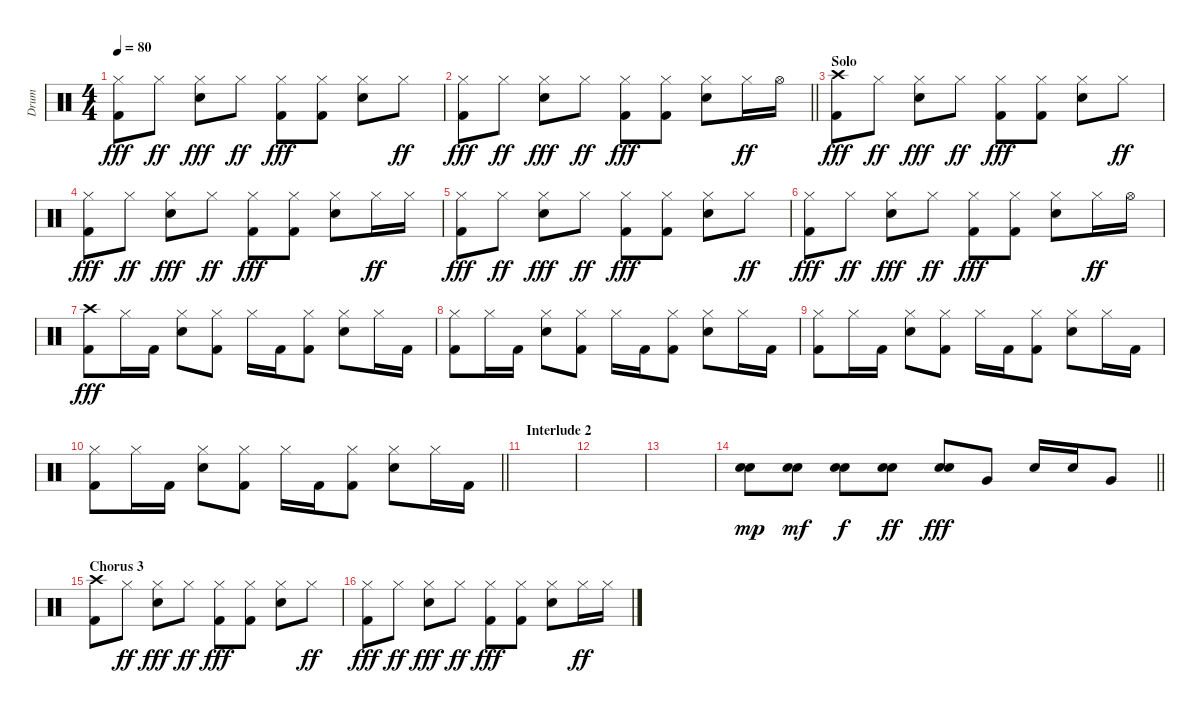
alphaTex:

\track ("Drum" "Drum") {instrument percussion}
\staff {score}
\articulation defaults
\ts (4 4)
\tempo 80
\clef neutral
\ks c
("Hi-Hat (closed)" "Kick (hit) 2").8{dy fff} "Hi-Hat (closed)".8{dy ff} ("Hi-Hat (closed)" "Electric Snare (hit)").8{dy fff} "Hi-Hat (closed)".8{dy ff} ("Hi-Hat (closed)" "Kick (hit) 2").8{dy fff} ("Hi-Hat (closed)" "Kick (hit) 2").8 ("Hi-Hat (closed)" "Electric Snare (hit)").8 "Hi-Hat (closed)".8{dy ff} |
\barLineRight lightlight
("Hi-Hat (closed)" "Kick (hit) 2").8{dy fff} "Hi-Hat (closed)".8{dy ff} ("Hi-Hat (closed)" "Electric Snare (hit)").8{dy fff} "Hi-Hat (closed)".8{dy ff} ("Hi-Hat (closed)" "Kick (hit) 2").8{dy fff} ("Hi-Hat (closed)" "Kick (hit) 2").8 ("Hi-Hat (closed)" "Electric Snare (hit)").8 "Hi-Hat (closed)".16{dy ff} "Hi-Hat (open)".16 |
\section ("" "Solo")
("Crash high (hit)" "Kick (hit) 2").8{dy fff} "Hi-Hat (closed)".8{dy ff} ("Hi-Hat (closed)" "Electric Snare (hit)").8{dy fff} "Hi-Hat (closed)".8{dy ff} ("Hi-Hat (closed)" "Kick (hit) 2").8{dy fff} ("Hi-Hat (closed)" "Kick (hit) 2").8 ("Hi-Hat (closed)" "Electric Snare (hit)").8 "Hi-Hat (closed)".8{dy ff} |
("Hi-Hat (closed)" "Kick (hit) 2").8{dy fff} "Hi-Hat (closed)".8{dy ff} ("Hi-Hat (closed)" "Electric Snare (hit)").8{dy fff} "Hi-Hat (closed)".8{dy ff} ("Hi-Hat (closed)" "Kick (hit) 2").8{dy fff} ("Hi-Hat (closed)" "Kick (hit) 2").8 ("Hi-Hat (closed)" "Electric Snare (hit)").8 "Hi-Hat (closed)".16{dy ff} "Hi-Hat (closed)".16 |
("Hi-Hat (closed)" "Kick (hit) 2").8{dy fff} "Hi-Hat (closed)".8{dy ff} ("Hi-Hat (closed)" "Electric Snare (hit)").8{dy fff} "Hi-Hat (closed)".8{dy ff} ("Hi-Hat (closed)" "Kick (hit) 2").8{dy fff} ("Hi-Hat (closed)" "Kick (hit) 2").8 ("Hi-Hat (closed)" "Electric Snare (hit)").8 "Hi-Hat (closed)".8{dy ff} |
("Hi-Hat (closed)" "Kick (hit) 2").8{dy fff} "Hi-Hat (closed)".8{dy ff} ("Hi-Hat (closed)" "Electric Snare (hit)").8{dy fff} "Hi-Hat (closed)".8{dy ff} ("Hi-Hat (closed)" "Kick (hit) 2").8{dy fff} ("Hi-Hat (closed)" "Kick (hit) 2").8 ("Hi-Hat (closed)" "Electric Snare (hit)").8 "Hi-Hat (closed)".16{dy ff} "Hi-Hat (open)".16 |
("Crash high (hit)" "Kick (hit) 2").8{dy fff} "Hi-Hat (closed)".16 "Kick (hit) 2".16 ("Hi-Hat (closed)" "Electric Snare (hit)").8 ("Hi-Hat (closed)" "Kick (hit) 2").8 "Hi-Hat (closed)".16 "Kick (hit) 2".16 ("Hi-Hat (closed)" "Kick (hit) 2").8 ("Hi-Hat (closed)" "Electric Snare (hit)").8 "Hi-Hat (closed)".16 "Kick (hit) 2".16 |
("Hi-Hat (closed)" "Kick (hit) 2").8 "Hi-Hat (closed)".16 "Kick (hit) 2".16 ("Hi-Hat (closed)" "Electric Snare (hit)").8 ("Hi-Hat (closed)" "Kick (hit) 2").8 "Hi-Hat (closed)".16 "Kick (hit) 2".16 ("Hi-Hat (closed)" "Kick (hit) 2").8 ("Hi-Hat (closed)" "Electric Snare (hit)").8 "Hi-Hat (closed)".16 "Kick (hit) 2".16 |
("Hi-Hat (closed)" "Kick (hit) 2").8 "Hi-Hat (closed)".16 "Kick (hit) 2".16 ("Hi-Hat (closed)" "Electric Snare (hit)").8 ("Hi-Hat (closed)" "Kick (hit) 2").8 "Hi-Hat (closed)".16 "Kick (hit) 2".16 ("Hi-Hat (closed)" "Kick (hit) 2").8 ("Hi-Hat (closed)" "Electric Snare (hit)").8 "Hi-Hat (closed)".16 "Kick (hit) 2".16 |
\barLineRight lightlight
("Hi-Hat (closed)" "Kick (hit) 2").8 "Hi-Hat (closed)".16 "Kick (hit) 2".16 ("Hi-Hat (closed)" "Electric Snare (hit)").8 ("Hi-Hat (closed)" "Kick (hit) 2").8 "Hi-Hat (closed)".16 "Kick (hit) 2".16 ("Hi-Hat (closed)" "Kick (hit) 2").8 ("Hi-Hat (closed)" "Electric Snare (hit)").8 "Hi-Hat (closed)".16 "Kick (hit) 2".16 |
\section ("" "Interlude 2")
|
|
|
\barLineRight lightlight
("Electric Snare (hit)" "Electric Snare (hit)").8{dy mp} ("Electric Snare (hit)" "Electric Snare (hit)").8{dy mf} ("Electric Snare (hit)" "Electric Snare (hit)").8{dy f} ("Electric Snare (hit)" "Electric Snare (hit)").8{dy ff} ("Electric Snare (hit)" "Electric Snare (hit)").8{dy fff} "Very Low Tom (hit)".8 "Electric Snare (hit)".16 "Electric Snare (hit)".16 "Very Low Tom (hit)".8 |
\section ("" "Chorus 3")
("Crash high (hit)" "Kick (hit) 2").8 "Hi-Hat (closed)".8{dy ff} ("Hi-Hat (closed)" "Electric Snare (hit)").8{dy fff} "Hi-Hat (closed)".8{dy ff} ("Hi-Hat (closed)" "Kick (hit) 2").8{dy fff} ("Hi-Hat (closed)" "Kick (hit) 2").8 ("Hi-Hat (closed)" "Electric Snare (hit)").8 "Hi-Hat (closed)".8{dy ff} |
("Hi-Hat (closed)" "Kick (hit) 2").8{dy fff} "Hi-Hat (closed)".8{dy ff} ("Hi-Hat (closed)" "Electric Snare (hit)").8{dy fff} "Hi-Hat (closed)".8{dy ff} ("Hi-Hat (closed)" "Kick (hit) 2").8{dy fff} ("Hi-Hat (closed)" "Kick (hit) 2").8 ("Hi-Hat (closed)" "Electric Snare (hit)").8 "Hi-Hat (closed)".16{dy ff} "Hi-Hat (closed)".16
